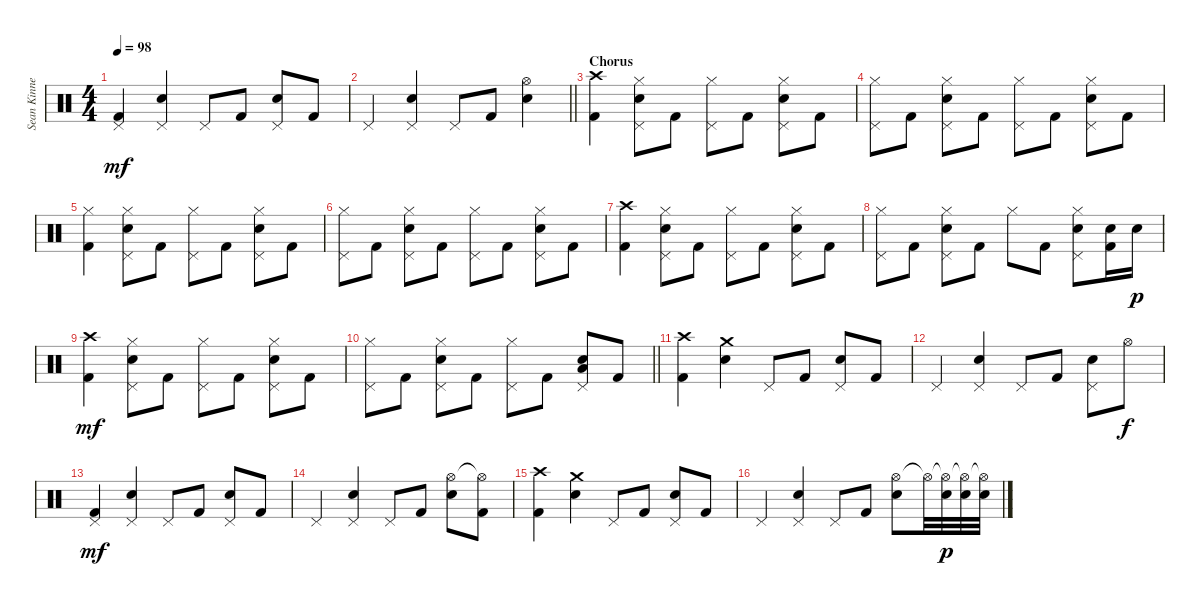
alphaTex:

\track ("Sean Kinney" "Sean Kinne") {instrument percussion}
\staff {score}
\articulation defaults
\ts (4 4)
\tempo 98
\clef neutral
\ks c
("Pedal Hi-Hat (hit)" "Kick (hit) 2").4{dy mf} ("Pedal Hi-Hat (hit)" "Snare (hit) 2").4 "Pedal Hi-Hat (hit)".8 "Kick (hit) 2".8 ("Pedal Hi-Hat (hit)" "Snare (hit) 2").8 "Kick (hit) 2".8 |
\barLineRight lightlight "Pedal Hi-Hat (hit)".4
("Pedal Hi-Hat (hit)" "Snare (hit) 2").4 "Pedal Hi-Hat (hit)".8 "Kick (hit) 2".8 ("Hi-Hat (open)" "Snare (hit) 2").4 |
\section ("" "Chorus")
("Crash high (hit)" "Kick (hit) 2").4 ("Hi-Hat (closed)" "Snare (hit) 2" "Pedal Hi-Hat (hit)").8 "Kick (hit) 2".8 ("Hi-Hat (closed)" "Pedal Hi-Hat (hit)").8 "Kick (hit) 2".8 ("Hi-Hat (closed)" "Snare (hit) 2" "Pedal Hi-Hat (hit)").8 "Kick (hit) 2".8 |
("Hi-Hat (closed)" "Pedal Hi-Hat (hit)").8 "Kick (hit) 2".8 ("Hi-Hat (closed)" "Snare (hit) 2" "Pedal Hi-Hat (hit)").8 "Kick (hit) 2".8 ("Hi-Hat (closed)" "Pedal Hi-Hat (hit)").8 "Kick (hit) 2".8 ("Hi-Hat (closed)" "Snare (hit) 2" "Pedal Hi-Hat (hit)").8 "Kick (hit) 2".8 |
("Hi-Hat (closed)" "Kick (hit) 2").4 ("Hi-Hat (closed)" "Snare (hit) 2" "Pedal Hi-Hat (hit)").8 "Kick (hit) 2".8 ("Hi-Hat (closed)" "Pedal Hi-Hat (hit)").8 "Kick (hit) 2".8 ("Hi-Hat (closed)" "Snare (hit) 2" "Pedal Hi-Hat (hit)").8 "Kick (hit) 2".8 |
("Hi-Hat (closed)" "Pedal Hi-Hat (hit)").8 "Kick (hit) 2".8 ("Hi-Hat (closed)" "Snare (hit) 2" "Pedal Hi-Hat (hit)").8 "Kick (hit) 2".8 ("Hi-Hat (closed)" "Pedal Hi-Hat (hit)").8 "Kick (hit) 2".8 ("Hi-Hat (closed)" "Snare (hit) 2" "Pedal Hi-Hat (hit)").8 "Kick (hit) 2".8 |
("Crash high (hit)" "Kick (hit) 2").4 ("Hi-Hat (closed)" "Snare (hit) 2" "Pedal Hi-Hat (hit)").8 "Kick (hit) 2".8 ("Hi-Hat (closed)" "Pedal Hi-Hat (hit)").8 "Kick (hit) 2".8 ("Hi-Hat (closed)" "Snare (hit) 2" "Pedal Hi-Hat (hit)").8 "Kick (hit) 2".8 |
("Hi-Hat (closed)" "Pedal Hi-Hat (hit)").8 "Kick (hit) 2".8 ("Hi-Hat (closed)" "Snare (hit) 2" "Pedal Hi-Hat (hit)").8 "Kick (hit) 2".8 "Hi-Hat (closed)".8 "Kick (hit) 2".8 ("Hi-Hat (closed)" "Snare (hit) 2" "Pedal Hi-Hat (hit)").8 ("Snare (hit) 2" "Kick (hit) 2").16 "Snare (hit) 2".16{dy p} |
("Crash high (hit)" "Kick (hit) 2").4{dy mf} ("Hi-Hat (closed)" "Snare (hit) 2" "Pedal Hi-Hat (hit)").8 "Kick (hit) 2".8 ("Hi-Hat (closed)" "Pedal Hi-Hat (hit)").8 "Kick (hit) 2".8 ("Hi-Hat (closed)" "Snare (hit) 2" "Pedal Hi-Hat (hit)").8 "Kick (hit) 2".8 |
\barLineRight lightlight
("Hi-Hat (closed)" "Pedal Hi-Hat (hit)").8 "Kick (hit) 2".8 ("Hi-Hat (closed)" "Snare (hit) 2" "Pedal Hi-Hat (hit)").8 "Kick (hit) 2".8 ("Hi-Hat (closed)" "Pedal Hi-Hat (hit)").8 "Kick (hit) 2".8 ("Pedal Hi-Hat (hit)" "Low Tom (hit)" "Snare (hit) 2").8 "Kick (hit) 2".8 |
("Crash high (hit)" "Kick (hit) 2").4 ("Crash medium (hit)" "Snare (hit) 2").4 "Pedal Hi-Hat (hit)".8 "Kick (hit) 2".8 ("Pedal Hi-Hat (hit)" "Snare (hit) 2").8 "Kick (hit) 2".8 |
"Pedal Hi-Hat (hit)".4 ("Pedal Hi-Hat (hit)" "Snare (hit) 2").4 "Pedal Hi-Hat (hit)".8 "Kick (hit) 2".8 ("Pedal Hi-Hat (hit)" "Snare (hit) 2").8 "Hi-Hat (open)".8{dy f} |
("Pedal Hi-Hat (hit)" "Kick (hit) 2").4{dy mf} ("Pedal Hi-Hat (hit)" "Snare (hit) 2").4 "Pedal Hi-Hat (hit)".8 "Kick (hit) 2".8 ("Pedal Hi-Hat (hit)" "Snare (hit) 2").8 "Kick (hit) 2".8 |
"Pedal Hi-Hat (hit)".4 ("Pedal Hi-Hat (hit)" "Snare (hit) 2").4 "Pedal Hi-Hat (hit)".8 "Kick (hit) 2".8 ("Hi-Hat (open)" "Snare (hit) 2").8 ("Hi-Hat (open)"{t} "Kick (hit) 2").8 |
("Crash high (hit)" "Kick (hit) 2").4 ("Crash medium (hit)" "Snare (hit) 2").4 "Pedal Hi-Hat (hit)".8 "Kick (hit) 2".8 ("Pedal Hi-Hat (hit)" "Snare (hit) 2").8 "Kick (hit) 2".8 |
"Pedal Hi-Hat (hit)".4 ("Pedal Hi-Hat (hit)" "Snare (hit) 2").4 "Pedal Hi-Hat (hit)".8 "Kick (hit) 2".8 ("Hi-Hat (open)" "Snare (hit) 2").8 "Hi-Hat (open)"{t}.32 ("Hi-Hat (open)"{t} "Snare (hit) 2").32{dy p} ("Hi-Hat (open)"{t} "Snare (hit) 2").32 ("Hi-Hat (open)"{t} "Snare (hit) 2").32
